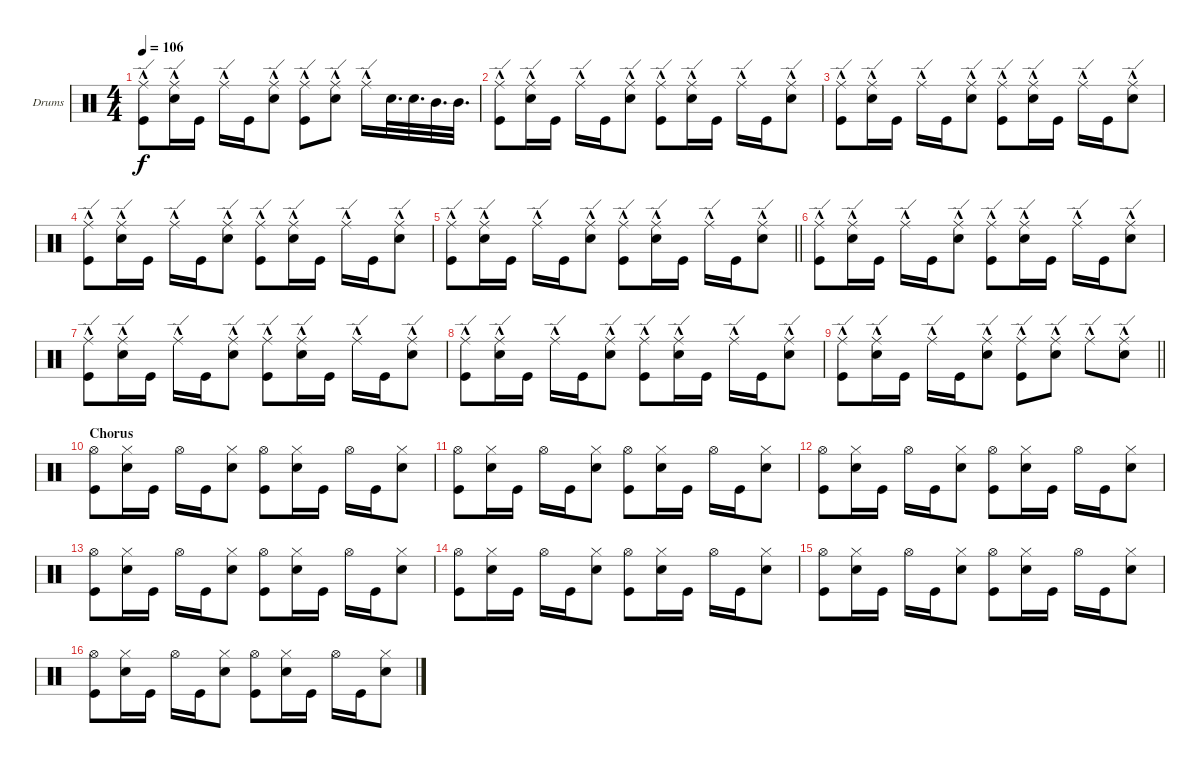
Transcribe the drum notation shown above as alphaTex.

\bracketExtendMode groupsimilarinstruments
\firstSystemTrackNameOrientation horizontal
\otherSystemsTrackNameOrientation horizontal
\track ("Fabrizio" "Drums") {instrument percussion}
\staff {score}
\articulation defaults
\ts (4 4)
\tempo 106
\clef neutral
\ks c
("Ride (edge)"{hac} "Kick (hit)").8{dy f} ("Ride (edge)"{hac} "Snare (hit) 2").16 "Kick (hit)".16 "Ride (edge)"{hac}.16 "Kick (hit)".16 ("Ride (edge)"{hac} "Snare (hit) 2").8 ("Ride (edge)"{hac} "Kick (hit)").8 ("Ride (edge)"{hac} "Snare (hit) 2").8 "Ride (edge)"{hac}.16 "Snare (hit) 2".32{d} "Snare (hit) 2".32{d} "Mid Tom (hit)".32{d} "Mid Tom (hit)".32{d} |
("Ride (edge)"{hac} "Kick (hit)").8 ("Ride (edge)"{hac} "Snare (hit) 2").16 "Kick (hit)".16 "Ride (edge)"{hac}.16 "Kick (hit)".16 ("Ride (edge)"{hac} "Snare (hit) 2").8 ("Ride (edge)"{hac} "Kick (hit)").8 ("Ride (edge)"{hac} "Snare (hit) 2").16 "Kick (hit)".16 "Ride (edge)"{hac}.16 "Kick (hit)".16 ("Ride (edge)"{hac} "Snare (hit) 2").8 |
("Ride (edge)"{hac} "Kick (hit)").8 ("Ride (edge)"{hac} "Snare (hit) 2").16 "Kick (hit)".16 "Ride (edge)"{hac}.16 "Kick (hit)".16 ("Ride (edge)"{hac} "Snare (hit) 2").8 ("Ride (edge)"{hac} "Kick (hit)").8 ("Ride (edge)"{hac} "Snare (hit) 2").16 "Kick (hit)".16 "Ride (edge)"{hac}.16 "Kick (hit)".16 ("Ride (edge)"{hac} "Snare (hit) 2").8 |
("Ride (edge)"{hac} "Kick (hit)").8 ("Ride (edge)"{hac} "Snare (hit) 2").16 "Kick (hit)".16 "Ride (edge)"{hac}.16 "Kick (hit)".16 ("Ride (edge)"{hac} "Snare (hit) 2").8 ("Ride (edge)"{hac} "Kick (hit)").8 ("Ride (edge)"{hac} "Snare (hit) 2").16 "Kick (hit)".16 "Ride (edge)"{hac}.16 "Kick (hit)".16 ("Ride (edge)"{hac} "Snare (hit) 2").8 |
\barLineRight lightlight
("Ride (edge)"{hac} "Kick (hit)").8 ("Ride (edge)"{hac} "Snare (hit) 2").16 "Kick (hit)".16 "Ride (edge)"{hac}.16 "Kick (hit)".16 ("Ride (edge)"{hac} "Snare (hit) 2").8 ("Ride (edge)"{hac} "Kick (hit)").8 ("Ride (edge)"{hac} "Snare (hit) 2").16 "Kick (hit)".16 "Ride (edge)"{hac}.16 "Kick (hit)".16 ("Ride (edge)"{hac} "Snare (hit) 2").8 |
("Ride (edge)"{hac} "Kick (hit)").8 ("Ride (edge)"{hac} "Snare (hit) 2").16 "Kick (hit)".16 "Ride (edge)"{hac}.16 "Kick (hit)".16 ("Ride (edge)"{hac} "Snare (hit) 2").8 ("Ride (edge)"{hac} "Kick (hit)").8 ("Ride (edge)"{hac} "Snare (hit) 2").16 "Kick (hit)".16 "Ride (edge)"{hac}.16 "Kick (hit)".16 ("Ride (edge)"{hac} "Snare (hit) 2").8 |
("Ride (edge)"{hac} "Kick (hit)").8 ("Ride (edge)"{hac} "Snare (hit) 2").16 "Kick (hit)".16 "Ride (edge)"{hac}.16 "Kick (hit)".16 ("Ride (edge)"{hac} "Snare (hit) 2").8 ("Ride (edge)"{hac} "Kick (hit)").8 ("Ride (edge)"{hac} "Snare (hit) 2").16 "Kick (hit)".16 "Ride (edge)"{hac}.16 "Kick (hit)".16 ("Ride (edge)"{hac} "Snare (hit) 2").8 |
("Ride (edge)"{hac} "Kick (hit)").8 ("Ride (edge)"{hac} "Snare (hit) 2").16 "Kick (hit)".16 "Ride (edge)"{hac}.16 "Kick (hit)".16 ("Ride (edge)"{hac} "Snare (hit) 2").8 ("Ride (edge)"{hac} "Kick (hit)").8 ("Ride (edge)"{hac} "Snare (hit) 2").16 "Kick (hit)".16 "Ride (edge)"{hac}.16 "Kick (hit)".16 ("Ride (edge)"{hac} "Snare (hit) 2").8 |
\barLineRight lightlight
("Ride (edge)"{hac} "Kick (hit)").8 ("Ride (edge)"{hac} "Snare (hit) 2").16 "Kick (hit)".16 "Ride (edge)"{hac}.16 "Kick (hit)".16 ("Ride (edge)"{hac} "Snare (hit) 2").8 ("Ride (edge)"{hac} "Kick (hit)").8 ("Ride (edge)"{hac} "Snare (hit) 2").8 "Ride (edge)"{hac}.8 ("Ride (edge)"{hac} "Snare (hit) 2").8 |
\section ("" "Chorus")
("Hi-Hat (open)" "Kick (hit)").8 ("Hi-Hat (closed)" "Snare (hit) 2").16 "Kick (hit)".16 "Hi-Hat (open)".16 "Kick (hit)".16 ("Hi-Hat (closed)" "Snare (hit) 2").8 ("Hi-Hat (open)" "Kick (hit)").8 ("Hi-Hat (closed)" "Snare (hit) 2").16 "Kick (hit)".16 "Hi-Hat (open)".16 "Kick (hit)".16 ("Hi-Hat (closed)" "Snare (hit) 2").8 |
("Hi-Hat (open)" "Kick (hit)").8 ("Hi-Hat (closed)" "Snare (hit) 2").16 "Kick (hit)".16 "Hi-Hat (open)".16 "Kick (hit)".16 ("Hi-Hat (closed)" "Snare (hit) 2").8 ("Hi-Hat (open)" "Kick (hit)").8 ("Hi-Hat (closed)" "Snare (hit) 2").16 "Kick (hit)".16 "Hi-Hat (open)".16 "Kick (hit)".16 ("Hi-Hat (closed)" "Snare (hit) 2").8 |
("Hi-Hat (open)" "Kick (hit)").8 ("Hi-Hat (closed)" "Snare (hit) 2").16 "Kick (hit)".16 "Hi-Hat (open)".16 "Kick (hit)".16 ("Hi-Hat (closed)" "Snare (hit) 2").8 ("Hi-Hat (open)" "Kick (hit)").8 ("Hi-Hat (closed)" "Snare (hit) 2").16 "Kick (hit)".16 "Hi-Hat (open)".16 "Kick (hit)".16 ("Hi-Hat (closed)" "Snare (hit) 2").8 |
("Hi-Hat (open)" "Kick (hit)").8 ("Hi-Hat (closed)" "Snare (hit) 2").16 "Kick (hit)".16 "Hi-Hat (open)".16 "Kick (hit)".16 ("Hi-Hat (closed)" "Snare (hit) 2").8 ("Hi-Hat (open)" "Kick (hit)").8 ("Hi-Hat (closed)" "Snare (hit) 2").16 "Kick (hit)".16 "Hi-Hat (open)".16 "Kick (hit)".16 ("Hi-Hat (closed)" "Snare (hit) 2").8 |
("Hi-Hat (open)" "Kick (hit)").8 ("Hi-Hat (closed)" "Snare (hit) 2").16 "Kick (hit)".16 "Hi-Hat (open)".16 "Kick (hit)".16 ("Hi-Hat (closed)" "Snare (hit) 2").8 ("Hi-Hat (open)" "Kick (hit)").8 ("Hi-Hat (closed)" "Snare (hit) 2").16 "Kick (hit)".16 "Hi-Hat (open)".16 "Kick (hit)".16 ("Hi-Hat (closed)" "Snare (hit) 2").8 |
("Hi-Hat (open)" "Kick (hit)").8 ("Hi-Hat (closed)" "Snare (hit) 2").16 "Kick (hit)".16 "Hi-Hat (open)".16 "Kick (hit)".16 ("Hi-Hat (closed)" "Snare (hit) 2").8 ("Hi-Hat (open)" "Kick (hit)").8 ("Hi-Hat (closed)" "Snare (hit) 2").16 "Kick (hit)".16 "Hi-Hat (open)".16 "Kick (hit)".16 ("Hi-Hat (closed)" "Snare (hit) 2").8 |
("Hi-Hat (open)" "Kick (hit)").8 ("Hi-Hat (closed)" "Snare (hit) 2").16 "Kick (hit)".16 "Hi-Hat (open)".16 "Kick (hit)".16 ("Hi-Hat (closed)" "Snare (hit) 2").8 ("Hi-Hat (open)" "Kick (hit)").8 ("Hi-Hat (closed)" "Snare (hit) 2").16 "Kick (hit)".16 "Hi-Hat (open)".16 "Kick (hit)".16 ("Hi-Hat (closed)" "Snare (hit) 2").8
